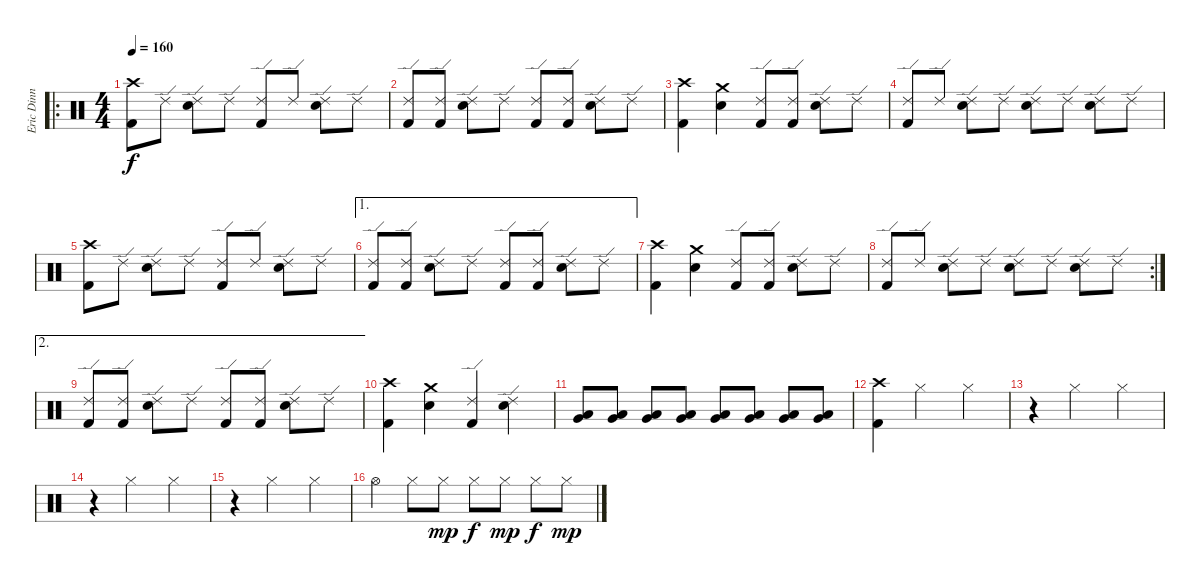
\track ("Eric Dinn" "Eric Dinn") {instrument percussion}
\staff {score}
\articulation defaults
\ro
\ts (4 4)
\tempo 160
\clef neutral
\ks c
("Crash high (hit)" "Kick (hit) 2").8{dy f} "Ride (edge) 2".8 ("Ride (edge) 2" "Snare (hit) 2").8 "Ride (edge) 2".8 ("Ride (edge) 2" "Kick (hit) 2").8 "Ride (edge) 2".8 ("Ride (edge) 2" "Snare (hit) 2").8 "Ride (edge) 2".8 |
("Ride (edge) 2" "Kick (hit) 2").8 ("Ride (edge) 2" "Kick (hit) 2").8 ("Ride (edge) 2" "Snare (hit) 2").8 "Ride (edge) 2".8 ("Ride (edge) 2" "Kick (hit) 2").8 ("Ride (edge) 2" "Kick (hit) 2").8 ("Ride (edge) 2" "Snare (hit) 2").8 "Ride (edge) 2".8 |
("Crash high (hit)" "Kick (hit) 2").4 ("Crash medium (hit)" "Snare (hit) 2").4 ("Ride (edge) 2" "Kick (hit) 2").8 ("Ride (edge) 2" "Kick (hit) 2").8 ("Ride (edge) 2" "Snare (hit) 2").8 "Ride (edge) 2".8 |
("Ride (edge) 2" "Kick (hit) 2").8 "Ride (edge) 2".8 ("Ride (edge) 2" "Snare (hit) 2").8 "Ride (edge) 2".8 ("Ride (edge) 2" "Snare (hit) 2").8 "Ride (edge) 2".8 ("Ride (edge) 2" "Snare (hit) 2").8 "Ride (edge) 2".8 |
("Crash high (hit)" "Kick (hit) 2").8 "Ride (edge) 2".8 ("Ride (edge) 2" "Snare (hit) 2").8 "Ride (edge) 2".8 ("Ride (edge) 2" "Kick (hit) 2").8 "Ride (edge) 2".8 ("Ride (edge) 2" "Snare (hit) 2").8 "Ride (edge) 2".8 |
\ae 1
("Ride (edge) 2" "Kick (hit) 2").8 ("Ride (edge) 2" "Kick (hit) 2").8 ("Ride (edge) 2" "Snare (hit) 2").8 "Ride (edge) 2".8 ("Ride (edge) 2" "Kick (hit) 2").8 ("Ride (edge) 2" "Kick (hit) 2").8 ("Ride (edge) 2" "Snare (hit) 2").8 "Ride (edge) 2".8 |
("Crash high (hit)" "Kick (hit) 2").4 ("Crash medium (hit)" "Snare (hit) 2").4 ("Ride (edge) 2" "Kick (hit) 2").8 ("Ride (edge) 2" "Kick (hit) 2").8 ("Ride (edge) 2" "Snare (hit) 2").8 "Ride (edge) 2".8 |
\rc 2
("Ride (edge) 2" "Kick (hit) 2").8 "Ride (edge) 2".8 ("Ride (edge) 2" "Snare (hit) 2").8 "Ride (edge) 2".8 ("Ride (edge) 2" "Snare (hit) 2").8 "Ride (edge) 2".8 ("Ride (edge) 2" "Snare (hit) 2").8 "Ride (edge) 2".8 |
\ae 2
("Ride (edge) 2" "Kick (hit) 2").8 ("Ride (edge) 2" "Kick (hit) 2").8 ("Ride (edge) 2" "Snare (hit) 2").8 "Ride (edge) 2".8 ("Ride (edge) 2" "Kick (hit) 2").8 ("Ride (edge) 2" "Kick (hit) 2").8 ("Ride (edge) 2" "Snare (hit) 2").8 "Ride (edge) 2".8 |
("Crash high (hit)" "Kick (hit) 2").4 ("Crash medium (hit)" "Snare (hit) 2").4 ("Ride (edge) 2" "Kick (hit) 2").4 ("Ride (edge) 2" "Snare (hit) 2").4 |
("Very Low Tom (hit)" "Low Tom (hit)").8 ("Very Low Tom (hit)" "Low Tom (hit)").8 ("Very Low Tom (hit)" "Low Tom (hit)").8 ("Very Low Tom (hit)" "Low Tom (hit)").8 ("Very Low Tom (hit)" "Low Tom (hit)").8 ("Very Low Tom (hit)" "Low Tom (hit)").8 ("Very Low Tom (hit)" "Low Tom (hit)").8 ("Very Low Tom (hit)" "Low Tom (hit)").8 |
("Crash high (hit)" "Kick (hit) 2").4 "Hi-Hat (closed)".2 "Hi-Hat (closed)".4 |
r.4 "Hi-Hat (closed)".2 "Hi-Hat (closed)".4 |
r.4 "Hi-Hat (closed)".2 "Hi-Hat (closed)".4 |
r.4 "Hi-Hat (closed)".2 "Hi-Hat (closed)".4 |
"Hi-Hat (open)".4 "Hi-Hat (closed)".8 "Hi-Hat (closed)".8{dy mp} "Hi-Hat (closed)".8{dy f} "Hi-Hat (closed)".8{dy mp} "Hi-Hat (closed)".8{dy f} "Hi-Hat (closed)".8{dy mp}
